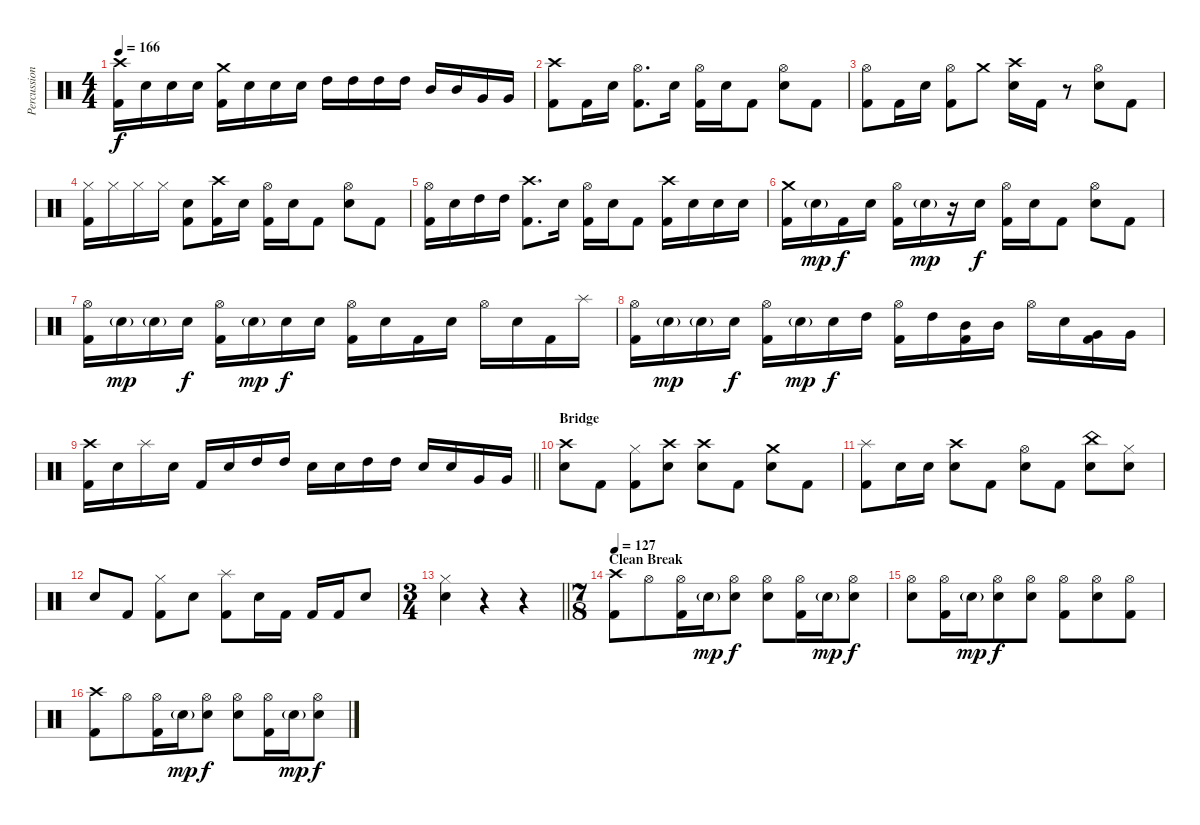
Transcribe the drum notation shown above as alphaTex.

\track ("Percussion" "Percussion") {instrument percussion}
\staff {score}
\articulation defaults
\ts (4 4)
\tempo 166
\clef neutral
\ks c
("Crash high (hit)" "Kick (hit) 2").16{dy f} "Electric Snare (hit)".16 "Electric Snare (hit)".16 "Electric Snare (hit)".16 ("Crash medium (hit)" "Kick (hit) 2").16 "Electric Snare (hit)".16 "Electric Snare (hit)".16 "Electric Snare (hit)".16 "High Tom (hit)".16 "High Tom (hit)".16 "High Tom (hit)".16 "High Tom (hit)".16 "Mid Tom (hit)".16 "Mid Tom (hit)".16 "Very Low Tom (hit)".16 "Very Low Tom (hit)".16 |
("Crash high (hit)" "Kick (hit) 2").8 "Kick (hit) 2".16 "Electric Snare (hit)".16 ("Hi-Hat (open)" "Kick (hit) 2").8{d} "Electric Snare (hit)".16 ("Hi-Hat (open)" "Kick (hit) 2").16 "Electric Snare (hit)".16 "Kick (hit) 2".8 ("Hi-Hat (open)" "Electric Snare (hit)").8 "Kick (hit) 2".8 |
("Hi-Hat (open)" "Kick (hit) 2").8 "Kick (hit) 2".16 "Electric Snare (hit)".16 ("Hi-Hat (open)" "Kick (hit) 2").8 "Crash medium (hit)".8 ("Crash high (hit)" "Electric Snare (hit)").16 "Kick (hit) 2".16 r.8 ("Hi-Hat (open)" "Electric Snare (hit)").8 "Kick (hit) 2".8 |
("Hi-Hat (closed)" "Kick (hit) 2").16 "Hi-Hat (closed)".16 "Hi-Hat (closed)".16 "Hi-Hat (closed)".16 ("Electric Snare (hit)" "Kick (hit) 2").8 ("Crash high (hit)" "Kick (hit) 2").16 "Electric Snare (hit)".16 ("Hi-Hat (open)" "Kick (hit) 2").16 "Electric Snare (hit)".16 "Kick (hit) 2".8 ("Hi-Hat (open)" "Electric Snare (hit)").8 "Kick (hit) 2".8 |
("Hi-Hat (open)" "Kick (hit) 2").16 "Electric Snare (hit)".16 "High Tom (hit)".16 "High Tom (hit)".16 ("Crash high (hit)" "Kick (hit) 2").8{d} "Electric Snare (hit)".16 ("Hi-Hat (open)" "Kick (hit) 2").16 "Electric Snare (hit)".16 "Kick (hit) 2".8 ("Crash high (hit)" "Kick (hit) 2").16 "Electric Snare (hit)".16 "Electric Snare (hit)".16 "Electric Snare (hit)".16 |
("Crash medium (hit)" "Kick (hit) 2").16 "Electric Snare (hit)"{g}.16{dy mp} "Kick (hit) 2".16{dy f} "Electric Snare (hit)".16 ("Hi-Hat (open)" "Kick (hit) 2").16 "Electric Snare (hit)"{g}.16{dy mp} r.16 "Electric Snare (hit)".16{dy f} ("Hi-Hat (open)" "Kick (hit) 2").16 "Electric Snare (hit)".16 "Kick (hit) 2".8 ("Hi-Hat (open)" "Electric Snare (hit)").8 "Kick (hit) 2".8 |
("Hi-Hat (open)" "Kick (hit) 2").16 "Electric Snare (hit)"{g}.16{dy mp} "Electric Snare (hit)"{g}.16 "Electric Snare (hit)".16{dy f} ("Hi-Hat (open)" "Kick (hit) 2").16 "Electric Snare (hit)"{g}.16{dy mp} "Electric Snare (hit)".16{dy f} "Electric Snare (hit)".16 ("Hi-Hat (open)" "Kick (hit) 2").16 "Electric Snare (hit)".16 "Kick (hit) 2".16 "Electric Snare (hit)".16 "Hi-Hat (open)".16 "Electric Snare (hit)".16 "Kick (hit) 2".16 "Splash (hit)".16 |
("Hi-Hat (open)" "Kick (hit) 2").16 "Electric Snare (hit)"{g}.16{dy mp} "Electric Snare (hit)"{g}.16 "Electric Snare (hit)".16{dy f} ("Hi-Hat (open)" "Kick (hit) 2").16 "Electric Snare (hit)"{g}.16{dy mp} "Electric Snare (hit)".16{dy f} "High Tom (hit)".16 ("Hi-Hat (open)" "Kick (hit) 2").16 "High Tom (hit)".16 ("Mid Tom (hit)" "Kick (hit) 2").16 "Mid Tom (hit)".16 "Hi-Hat (open)".16 "Electric Snare (hit)".16 ("Very Low Tom (hit)" "Kick (hit) 2").16 "Very Low Tom (hit)".16 |
\barLineRight lightlight
("Crash high (hit)" "Kick (hit) 2").16 "Electric Snare (hit)".16 "Splash (hit)".16 "Electric Snare (hit)".16 "Kick (hit) 2".16 "Electric Snare (hit)".16 "High Tom (hit)".16 "High Tom (hit)".16 "Electric Snare (hit)".16 "Electric Snare (hit)".16 "High Tom (hit)".16 "High Tom (hit)".16 "Electric Snare (hit)".16 "Electric Snare (hit)".16 "Very Low Tom (hit)".16 "Very Low Tom (hit)".16 |
\section ("" "Bridge")
("Crash high (hit)" "Electric Snare (hit)").8 "Kick (hit) 2".8 ("Hi-Hat (closed)" "Kick (hit) 2").8 ("Crash high (hit)" "Electric Snare (hit)").8 ("Crash high (hit)" "Electric Snare (hit)").8 "Kick (hit) 2".8 ("Crash medium (hit)" "Electric Snare (hit)").8 "Kick (hit) 2".8 |
("Splash (hit)" "Kick (hit) 2").8 "Electric Snare (hit)".16 "Electric Snare (hit)".16 ("Crash high (hit)" "Electric Snare (hit)").8 "Kick (hit) 2".8 ("Hi-Hat (open)" "Electric Snare (hit)").8 "Kick (hit) 2".8 ("China (hit)" "Electric Snare (hit)").8 ("Hi-Hat (closed)" "Electric Snare (hit)").8 |
"Electric Snare (hit)".8 "Kick (hit) 2".8 ("Hi-Hat (closed)" "Kick (hit) 2").8 "Electric Snare (hit)".8 ("Splash (hit)" "Kick (hit) 2").8 "Electric Snare (hit)".16 "Kick (hit) 2".16 "Kick (hit) 2".16 "Kick (hit) 2".16 "Electric Snare (hit)".8 |
\ts (3 4)
\barLineRight lightlight
("Hi-Hat (closed)" "Electric Snare (hit)").4 r.4 r.4 |
\ts (7 8)
\section ("" "Clean Break")
\tempo 127
("Crash high (hit)" "Kick (hit) 2").8 "Hi-Hat (open)".8 ("Hi-Hat (open)" "Kick (hit) 2").16 "Electric Snare (hit)"{g}.16{dy mp} ("Hi-Hat (open)" "Electric Snare (hit)").8{dy f} ("Hi-Hat (open)" "Electric Snare (hit)").8 ("Hi-Hat (open)" "Kick (hit) 2").16 "Electric Snare (hit)"{g}.16{dy mp} ("Hi-Hat (open)" "Electric Snare (hit)").8{dy f} |
("Hi-Hat (open)" "Electric Snare (hit)").8 ("Hi-Hat (open)" "Kick (hit) 2").16 "Electric Snare (hit)"{g}.16{dy mp} ("Hi-Hat (open)" "Electric Snare (hit)").8{dy f} ("Hi-Hat (open)" "Electric Snare (hit)").8 ("Hi-Hat (open)" "Kick (hit) 2").8 ("Hi-Hat (open)" "Electric Snare (hit)").8 ("Hi-Hat (open)" "Kick (hit) 2").8 |
("Crash high (hit)" "Kick (hit) 2").8 "Hi-Hat (open)".8 ("Hi-Hat (open)" "Kick (hit) 2").16 "Electric Snare (hit)"{g}.16{dy mp} ("Hi-Hat (open)" "Electric Snare (hit)").8{dy f} ("Hi-Hat (open)" "Electric Snare (hit)").8 ("Hi-Hat (open)" "Kick (hit) 2").16 "Electric Snare (hit)"{g}.16{dy mp} ("Hi-Hat (open)" "Electric Snare (hit)").8{dy f}
